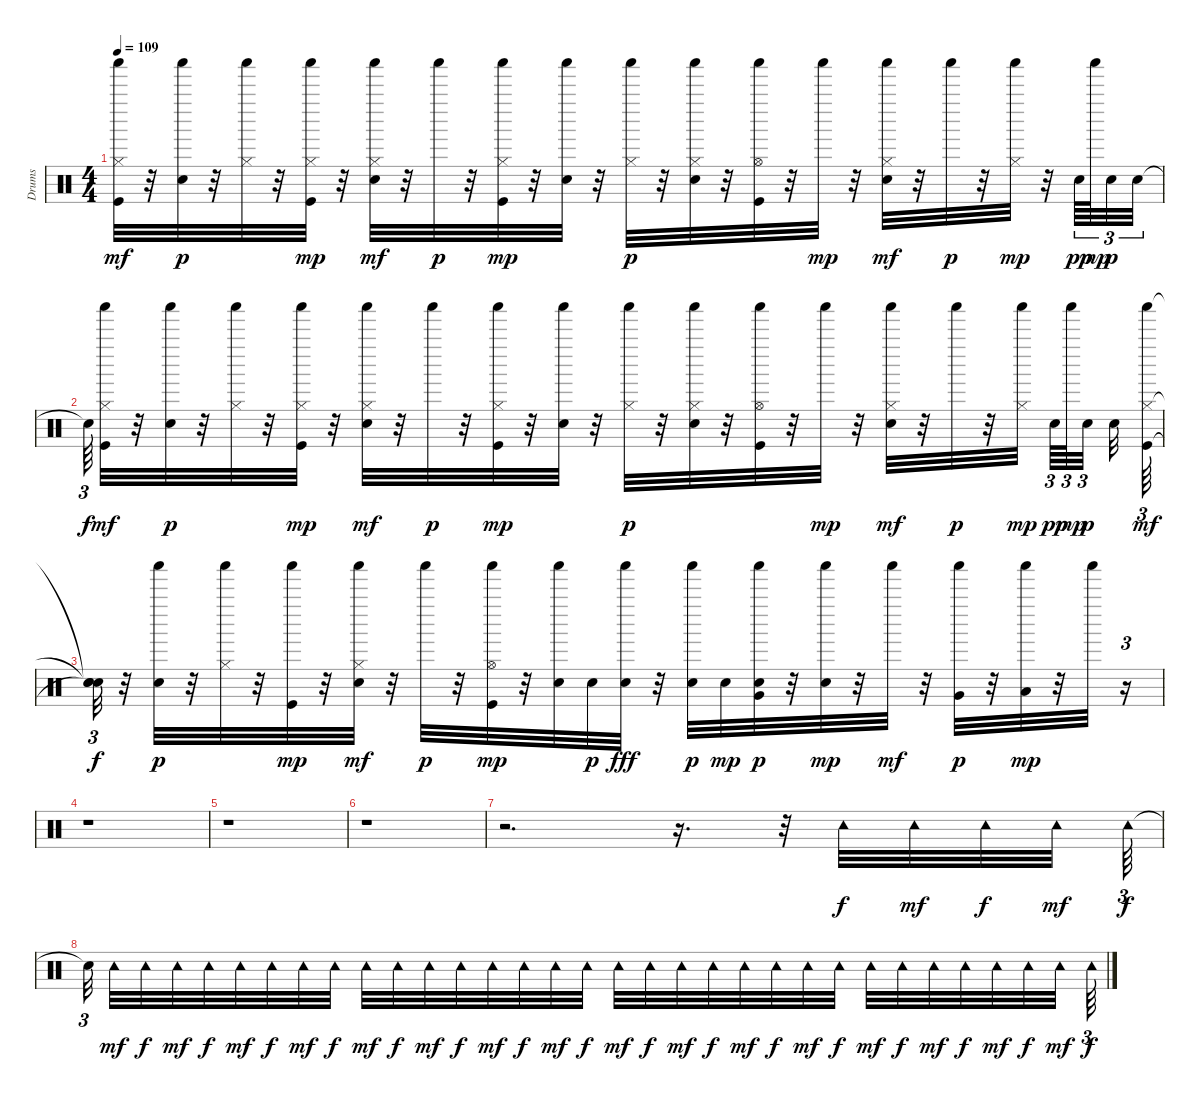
\track ("Drums" "Drums") {instrument percussion}
\staff {score}
\articulation defaults
\ts (4 4)
\tempo 109
\clef neutral
\ks c
("Kick (hit)" "Hi-Hat (closed)" "Shaker (hit)").32{dy mf} r.32 ("Snare (hit) 2" "Shaker (hit)").32{dy p} r.32 ("Hi-Hat (closed)" "Shaker (hit)").32 r.32 ("Kick (hit)" "Hi-Hat (closed)" "Shaker (hit)").32{dy mp} r.32 ("Snare (hit) 2" "Hi-Hat (closed)" "Shaker (hit)").32{dy mf} r.32 "Shaker (hit)".32{dy p} r.32 ("Kick (hit)" "Hi-Hat (closed)" "Shaker (hit)").32{dy mp} r.32 ("Snare (hit) 2" "Shaker (hit)").32 r.32 ("Hi-Hat (closed)" "Shaker (hit)").32{dy p} r.32 ("Snare (hit) 2" "Hi-Hat (closed)" "Shaker (hit)").32 r.32 ("Kick (hit)" "Hi-Hat (open)" "Shaker (hit)").32 r.32 "Shaker (hit)".32{dy mp} r.32 ("Snare (hit) 2" "Hi-Hat (closed)" "Shaker (hit)").32{dy mf} r.32 "Shaker (hit)".32{dy p} r.32 ("Hi-Hat (closed)" "Shaker (hit)").32{dy mp} r.32 "Snare (hit) 2".64{tu (3 2) dy pp} "Shaker (hit)".64{tu (3 2) dy mp} "Snare (hit) 2".32{tu (3 2) dy p} "Snare (hit) 2".32{tu (3 2)} |
"Snare (hit)"{t}.64{tu (3 2) dy f} ("Kick (hit)" "Hi-Hat (closed)" "Shaker (hit)").32{dy mf} r.32 ("Snare (hit) 2" "Shaker (hit)").32{dy p} r.32 ("Hi-Hat (closed)" "Shaker (hit)").32 r.32 ("Kick (hit)" "Hi-Hat (closed)" "Shaker (hit)").32{dy mp} r.32 ("Snare (hit) 2" "Hi-Hat (closed)" "Shaker (hit)").32{dy mf} r.32 "Shaker (hit)".32{dy p} r.32 ("Kick (hit)" "Hi-Hat (closed)" "Shaker (hit)").32{dy mp} r.32 ("Snare (hit) 2" "Shaker (hit)").32 r.32 ("Hi-Hat (closed)" "Shaker (hit)").32{dy p} r.32 ("Snare (hit) 2" "Hi-Hat (closed)" "Shaker (hit)").32 r.32 ("Kick (hit)" "Hi-Hat (open)" "Shaker (hit)").32 r.32 "Shaker (hit)".32{dy mp} r.32 ("Snare (hit) 2" "Hi-Hat (closed)" "Shaker (hit)").32{dy mf} r.32 "Shaker (hit)".32{dy p} r.32 ("Hi-Hat (closed)" "Shaker (hit)").32{dy mp beam splitsecondary} "Snare (hit) 2".64{tu (3 2) dy pp} "Shaker (hit)".64{tu (3 2) dy mp} "Snare (hit) 2".32{tu (3 2) dy p beam splitsecondary} "Snare (hit) 2".32 ("Kick (hit)" "Hi-Hat (closed)" "Shaker (hit)").64{tu (3 2) dy mf} |
("Snare (hit)"{t} "Snare (hit)"{t} "Snare (hit)"{t}).32{tu (3 2) dy f} r.32 ("Snare (hit) 2" "Shaker (hit)").32{dy p} r.32 ("Hi-Hat (closed)" "Shaker (hit)").32 r.32 ("Kick (hit)" "Shaker (hit)").32{dy mp} r.32 ("Snare (hit) 2" "Hi-Hat (closed)" "Shaker (hit)").32{dy mf} r.32 "Shaker (hit)".32{dy p} r.32 ("Kick (hit)" "Hi-Hat (open)" "Shaker (hit)").32{dy mp} r.32 ("Snare (hit) 2" "Shaker (hit)").32 "Snare (hit) 2".32{dy p} ("Snare (hit) 2" "Shaker (hit)").32{dy fff} r.32 ("Snare (hit) 2" "Shaker (hit)").32{dy p} "Snare (hit) 2".32{dy mp} ("Very Low Tom (hit)" "Snare (hit) 2" "Shaker (hit)").32{dy p} r.32 ("Snare (hit) 2" "Shaker (hit)").32{dy mp} r.32 "Shaker (hit)".32{dy mf} r.32 ("Very Low Tom (hit)" "Shaker (hit)").32{dy p} r.32 ("Low Floor Tom (hit)" "Shaker (hit)").32{dy mp} r.32 "Shaker (hit)".32 r.16{tu (3 2)} |
r.1 |
r.1 |
r.1 |
r.2{d} r.16{d} r.32{tu (3 2)} "Tambourine (hit)".32{dy f} "Tambourine (hit)".32{dy mf} "Tambourine (hit)".32{dy f} "Tambourine (hit)".32{dy mf beam splitsecondary} "Tambourine (hit)".64{tu (3 2) dy f} |
"Snare (hit)"{t}.32{tu (3 2) beam splitsecondary} "Tambourine (hit)".32{dy mf} "Tambourine (hit)".32{dy f} "Tambourine (hit)".32{dy mf} "Tambourine (hit)".32{dy f} "Tambourine (hit)".32{dy mf} "Tambourine (hit)".32{dy f} "Tambourine (hit)".32{dy mf} "Tambourine (hit)".32{dy f} "Tambourine (hit)".32{dy mf} "Tambourine (hit)".32{dy f} "Tambourine (hit)".32{dy mf} "Tambourine (hit)".32{dy f} "Tambourine (hit)".32{dy mf} "Tambourine (hit)".32{dy f} "Tambourine (hit)".32{dy mf} "Tambourine (hit)".32{dy f} "Tambourine (hit)".32{dy mf} "Tambourine (hit)".32{dy f} "Tambourine (hit)".32{dy mf} "Tambourine (hit)".32{dy f} "Tambourine (hit)".32{dy mf} "Tambourine (hit)".32{dy f} "Tambourine (hit)".32{dy mf} "Tambourine (hit)".32{dy f} "Tambourine (hit)".32{dy mf} "Tambourine (hit)".32{dy f} "Tambourine (hit)".32{dy mf} "Tambourine (hit)".32{dy f} "Tambourine (hit)".32{dy mf} "Tambourine (hit)".32{dy f} "Tambourine (hit)".32{dy mf beam splitsecondary} "Tambourine (hit)".64{tu (3 2) dy f}
